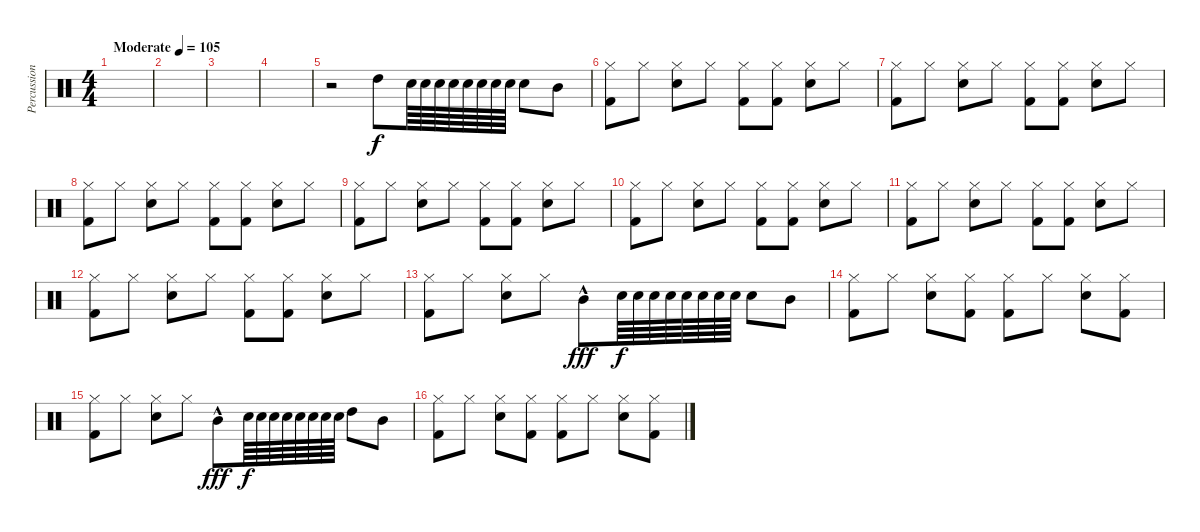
\track ("Percussion" "Percussion") {instrument percussion}
\staff {score}
\articulation defaults
\ts (4 4)
\tempo (105 "Moderate")
\clef neutral
\ks c
|
|
|
|
r.2 "High Tom (hit)".8 "Snare (hit) 2".64 "Snare (hit) 2".64 "Snare (hit) 2".64 "Snare (hit) 2".64 "Snare (hit) 2".64 "Snare (hit) 2".64 "Snare (hit) 2".64 "Snare (hit) 2".64 "Snare (hit) 2".8 "Mid Tom (hit)".8 |
("Hi-Hat (closed)" "Kick (hit) 2").8 "Hi-Hat (closed)".8 ("Hi-Hat (closed)" "Snare (hit) 2").8 "Hi-Hat (closed)".8 ("Hi-Hat (closed)" "Kick (hit) 2").8 ("Hi-Hat (closed)" "Kick (hit) 2").8 ("Hi-Hat (closed)" "Snare (hit) 2").8 "Hi-Hat (closed)".8 |
("Hi-Hat (closed)" "Kick (hit) 2").8 "Hi-Hat (closed)".8 ("Hi-Hat (closed)" "Snare (hit) 2").8 "Hi-Hat (closed)".8 ("Hi-Hat (closed)" "Kick (hit) 2").8 ("Hi-Hat (closed)" "Kick (hit) 2").8 ("Hi-Hat (closed)" "Snare (hit) 2").8 "Hi-Hat (closed)".8 |
("Hi-Hat (closed)" "Kick (hit) 2").8 "Hi-Hat (closed)".8 ("Hi-Hat (closed)" "Snare (hit) 2").8 "Hi-Hat (closed)".8 ("Hi-Hat (closed)" "Kick (hit) 2").8 ("Hi-Hat (closed)" "Kick (hit) 2").8 ("Hi-Hat (closed)" "Snare (hit) 2").8 "Hi-Hat (closed)".8 |
("Hi-Hat (closed)" "Kick (hit) 2").8 "Hi-Hat (closed)".8 ("Hi-Hat (closed)" "Snare (hit) 2").8 "Hi-Hat (closed)".8 ("Hi-Hat (closed)" "Kick (hit) 2").8 ("Hi-Hat (closed)" "Kick (hit) 2").8 ("Hi-Hat (closed)" "Snare (hit) 2").8 "Hi-Hat (closed)".8 |
("Hi-Hat (closed)" "Kick (hit) 2").8 "Hi-Hat (closed)".8 ("Hi-Hat (closed)" "Snare (hit) 2").8 "Hi-Hat (closed)".8 ("Hi-Hat (closed)" "Kick (hit) 2").8 ("Hi-Hat (closed)" "Kick (hit) 2").8 ("Hi-Hat (closed)" "Snare (hit) 2").8 "Hi-Hat (closed)".8 |
("Hi-Hat (closed)" "Kick (hit) 2").8 "Hi-Hat (closed)".8 ("Hi-Hat (closed)" "Snare (hit) 2").8 "Hi-Hat (closed)".8 ("Hi-Hat (closed)" "Kick (hit) 2").8 ("Hi-Hat (closed)" "Kick (hit) 2").8 ("Hi-Hat (closed)" "Snare (hit) 2").8 "Hi-Hat (closed)".8 |
("Hi-Hat (closed)" "Kick (hit) 2").8 "Hi-Hat (closed)".8 ("Hi-Hat (closed)" "Snare (hit) 2").8 "Hi-Hat (closed)".8 ("Hi-Hat (closed)" "Kick (hit) 2").8 ("Hi-Hat (closed)" "Kick (hit) 2").8 ("Hi-Hat (closed)" "Snare (hit) 2").8 "Hi-Hat (closed)".8 |
("Hi-Hat (closed)" "Kick (hit) 2").8 "Hi-Hat (closed)".8 ("Hi-Hat (closed)" "Snare (hit) 2").8 "Hi-Hat (closed)".8 "Mid Tom (hit)"{hac}.8{dy fff} "Snare (hit) 2".64{dy f} "Snare (hit) 2".64 "Snare (hit) 2".64 "Snare (hit) 2".64 "Snare (hit) 2".64 "Snare (hit) 2".64 "Snare (hit) 2".64 "Snare (hit) 2".64 "Snare (hit) 2".8 "Mid Tom (hit)".8 |
("Hi-Hat (closed)" "Kick (hit) 2").8 "Hi-Hat (closed)".8 ("Hi-Hat (closed)" "Snare (hit) 2").8 ("Hi-Hat (closed)" "Kick (hit) 2").8 ("Hi-Hat (closed)" "Kick (hit) 2").8 "Hi-Hat (closed)".8 ("Hi-Hat (closed)" "Snare (hit) 2").8 ("Hi-Hat (closed)" "Kick (hit) 2").8 |
("Hi-Hat (closed)" "Kick (hit) 2").8 "Hi-Hat (closed)".8 ("Hi-Hat (closed)" "Snare (hit) 2").8 "Hi-Hat (closed)".8 "Mid Tom (hit)"{hac}.8{dy fff} "Snare (hit) 2".64{dy f} "Snare (hit) 2".64 "Snare (hit) 2".64 "Snare (hit) 2".64 "Snare (hit) 2".64 "Snare (hit) 2".64 "Snare (hit) 2".64 "Snare (hit) 2".64 "High Tom (hit)".8 "Mid Tom (hit)".8 |
("Hi-Hat (closed)" "Kick (hit) 2").8 "Hi-Hat (closed)".8 ("Hi-Hat (closed)" "Snare (hit) 2").8 ("Hi-Hat (closed)" "Kick (hit) 2").8 ("Hi-Hat (closed)" "Kick (hit) 2").8 "Hi-Hat (closed)".8 ("Hi-Hat (closed)" "Snare (hit) 2").8 ("Hi-Hat (closed)" "Kick (hit) 2").8
